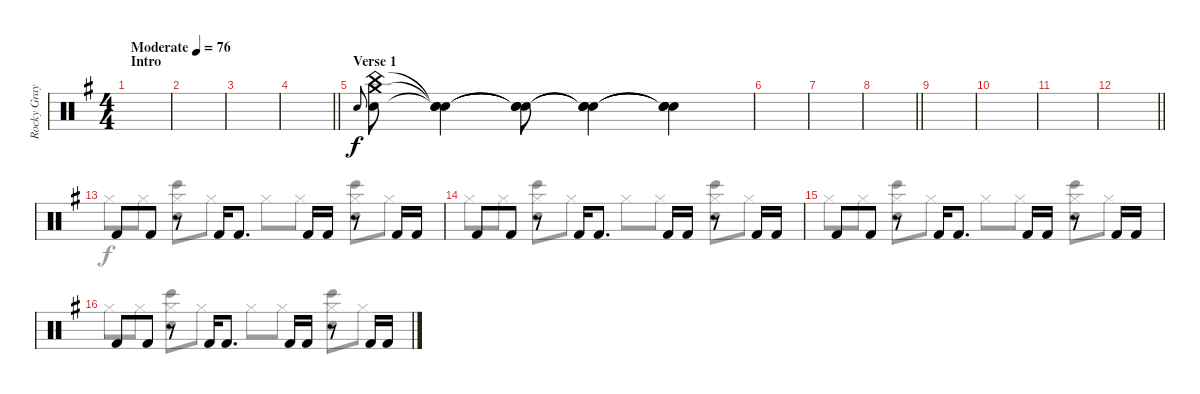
\track ("Rocky Gray" "Rocky Gray") {instrument percussion}
\staff {score}
\articulation defaults
\voice
\ts (4 4)
\section ("" "Intro")
\tempo (76 "Moderate")
\clef neutral
\ks g
|
|
|
\barLineRight lightlight
|
\section ("" "Verse 1")
"Electric Snare (hit)".8{gr onbeat} ("Electric Snare (hit)" "China (hit)" "Crash medium (hit)").8 ("Electric Snare (hit)"{t} "Snare (hit)"{t} "Snare (hit)"{t}).4 ("Electric Snare (hit)"{t} "Snare (hit)"{t} "Snare (hit)"{t}).8 ("Electric Snare (hit)"{t} "Snare (hit)"{t} "Snare (hit)"{t}).4 ("Electric Snare (hit)"{t} "Snare (hit)"{t} "Snare (hit)"{t}).4 |
|
|
\barLineRight lightlight
|
|
|
|
\barLineRight lightlight
|
"Kick (hit) 2".8 "Kick (hit) 2".8 r.8 "Kick (hit) 2".16 "Kick (hit) 2".8{d} "Kick (hit) 2".16 "Kick (hit) 2".16 r.8 "Kick (hit) 2".16 "Kick (hit) 2".16 |
"Kick (hit) 2".8 "Kick (hit) 2".8 r.8 "Kick (hit) 2".16 "Kick (hit) 2".8{d} "Kick (hit) 2".16 "Kick (hit) 2".16 r.8 "Kick (hit) 2".16 "Kick (hit) 2".16 |
"Kick (hit) 2".8 "Kick (hit) 2".8 r.8 "Kick (hit) 2".16 "Kick (hit) 2".8{d} "Kick (hit) 2".16 "Kick (hit) 2".16 r.8 "Kick (hit) 2".16 "Kick (hit) 2".16 |
"Kick (hit) 2".8 "Kick (hit) 2".8 r.8 "Kick (hit) 2".16 "Kick (hit) 2".8{d} "Kick (hit) 2".16 "Kick (hit) 2".16 r.8 "Kick (hit) 2".16 "Kick (hit) 2".16
\voice
\clef neutral
\ottava regular
\simile none
\ks g
|
|
|
\barLineRight lightlight
|
|
|
|
\barLineRight lightlight
|
|
|
|
\barLineRight lightlight
|
"Hi-Hat (closed)".8 "Hi-Hat (closed)".8 ("Hi-Hat (closed)" "Bongo High (hit)" "Hand Clap (hit)").8 "Hi-Hat (closed)".8 "Hi-Hat (closed)".8 "Hi-Hat (closed)".8 ("Hi-Hat (closed)" "Bongo High (hit)" "Hand Clap (hit)").8 "Hi-Hat (closed)".8 |
"Hi-Hat (closed)".8 "Hi-Hat (closed)".8 ("Hi-Hat (closed)" "Bongo High (hit)" "Hand Clap (hit)").8 "Hi-Hat (closed)".8 "Hi-Hat (closed)".8 "Hi-Hat (closed)".8 ("Hi-Hat (closed)" "Bongo High (hit)" "Hand Clap (hit)").8 "Hi-Hat (closed)".8 |
"Hi-Hat (closed)".8 "Hi-Hat (closed)".8 ("Hi-Hat (closed)" "Bongo High (hit)" "Hand Clap (hit)").8 "Hi-Hat (closed)".8 "Hi-Hat (closed)".8 "Hi-Hat (closed)".8 ("Hi-Hat (closed)" "Bongo High (hit)" "Hand Clap (hit)").8 "Hi-Hat (closed)".8 |
"Hi-Hat (closed)".8 "Hi-Hat (closed)".8 ("Hi-Hat (closed)" "Bongo High (hit)" "Hand Clap (hit)").8 "Hi-Hat (closed)".8 "Hi-Hat (closed)".8 "Hi-Hat (closed)".8 ("Hi-Hat (closed)" "Bongo High (hit)" "Hand Clap (hit)").8 "Hi-Hat (closed)".8
